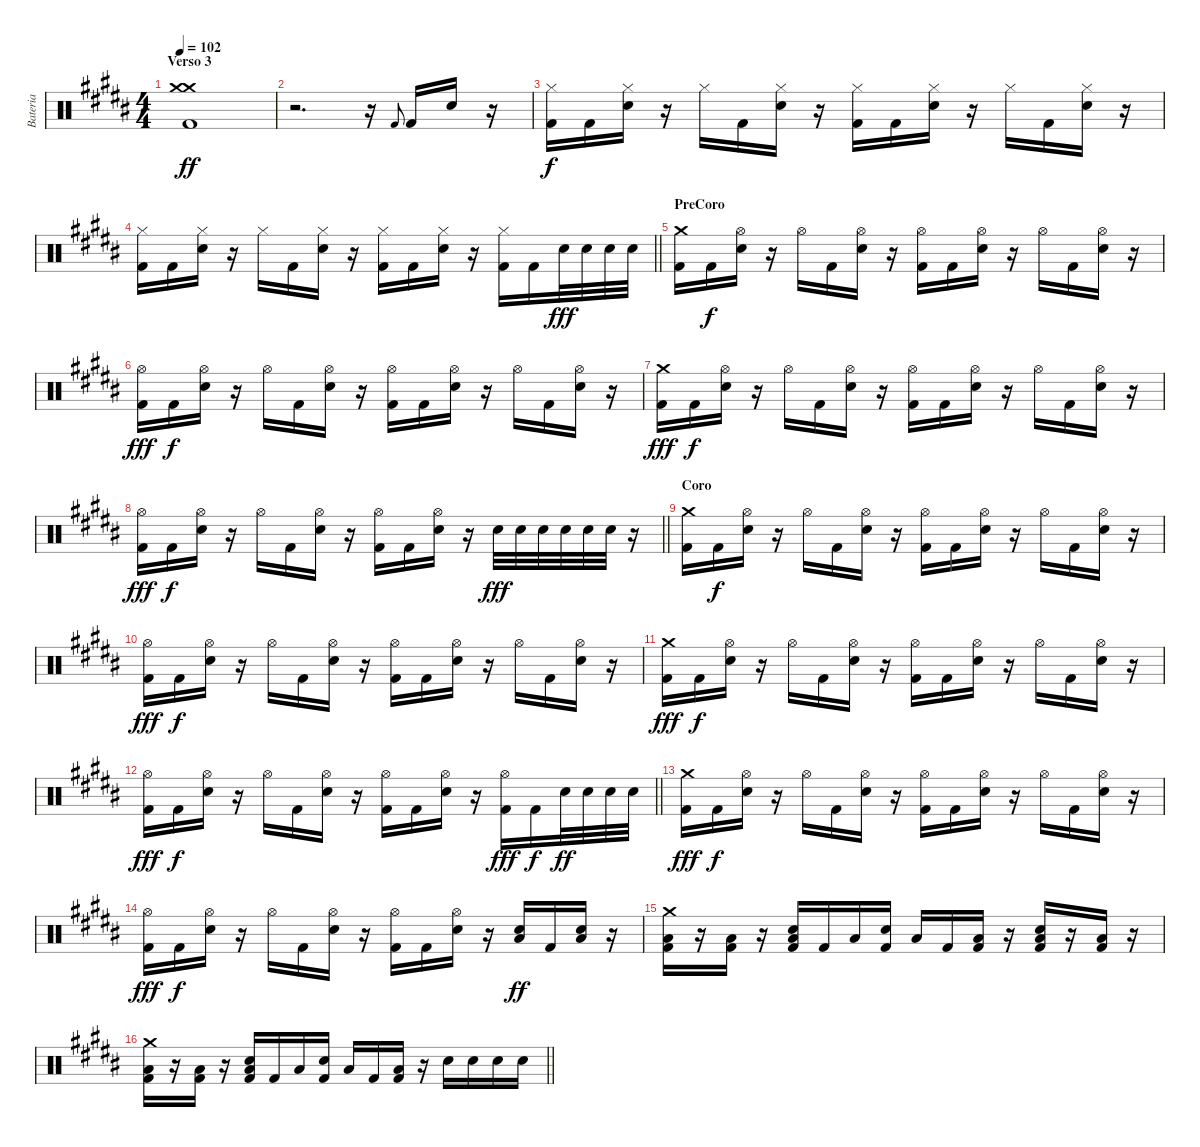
\track ("Bateria" "Bateria") {instrument percussion}
\staff {score}
\articulation defaults
\ts (4 4)
\section ("" "Verso 3")
\tempo 102
\clef neutral
\ks b
("Crash medium (hit)" "Crash medium (hit)" "Kick (hit) 2").1{dy ff} |
r.2{d} r.16 "Kick (hit) 2".8{gr onbeat} "Kick (hit) 2".16 "Electric Snare (hit)".16 r.16 |
("Hi-Hat (closed)" "Kick (hit) 2").16{dy f} "Kick (hit) 2".16 ("Hi-Hat (closed)" "Electric Snare (hit)").16 r.16 "Hi-Hat (closed)".16 "Kick (hit) 2".16 ("Hi-Hat (closed)" "Electric Snare (hit)").16 r.16 ("Hi-Hat (closed)" "Kick (hit) 2").16 "Kick (hit) 2".16 ("Hi-Hat (closed)" "Electric Snare (hit)").16 r.16 "Hi-Hat (closed)".16 "Kick (hit) 2".16 ("Hi-Hat (closed)" "Electric Snare (hit)").16 r.16 |
\barLineRight lightlight
("Hi-Hat (closed)" "Kick (hit) 2").16 "Kick (hit) 2".16 ("Hi-Hat (closed)" "Electric Snare (hit)").16 r.16 "Hi-Hat (closed)".16 "Kick (hit) 2".16 ("Hi-Hat (closed)" "Electric Snare (hit)").16 r.16 ("Hi-Hat (closed)" "Kick (hit) 2").16 "Kick (hit) 2".16 ("Hi-Hat (closed)" "Electric Snare (hit)").16 r.16 ("Hi-Hat (closed)" "Kick (hit) 2").16 "Kick (hit) 2".16 "Electric Snare (hit)".32{dy fff} "Electric Snare (hit)".32 "Electric Snare (hit)".32 "Electric Snare (hit)".32 |
\section ("" "PreCoro")
("Crash medium (hit)" "Kick (hit) 2").16 "Kick (hit) 2".16{dy f} ("Hi-Hat (open)" "Electric Snare (hit)").16 r.16 "Hi-Hat (open)".16 "Kick (hit) 2".16 ("Hi-Hat (open)" "Electric Snare (hit)").16 r.16 ("Hi-Hat (open)" "Kick (hit) 2").16 "Kick (hit) 2".16 ("Hi-Hat (open)" "Electric Snare (hit)").16 r.16 "Hi-Hat (open)".16 "Kick (hit) 2".16 ("Hi-Hat (open)" "Electric Snare (hit)").16 r.16 |
("Hi-Hat (open)" "Kick (hit) 2").16{dy fff} "Kick (hit) 2".16{dy f} ("Hi-Hat (open)" "Electric Snare (hit)").16 r.16 "Hi-Hat (open)".16 "Kick (hit) 2".16 ("Hi-Hat (open)" "Electric Snare (hit)").16 r.16 ("Hi-Hat (open)" "Kick (hit) 2").16 "Kick (hit) 2".16 ("Hi-Hat (open)" "Electric Snare (hit)").16 r.16 "Hi-Hat (open)".16 "Kick (hit) 2".16 ("Hi-Hat (open)" "Electric Snare (hit)").16 r.16 |
("Crash medium (hit)" "Kick (hit) 2").16{dy fff} "Kick (hit) 2".16{dy f} ("Hi-Hat (open)" "Electric Snare (hit)").16 r.16 "Hi-Hat (open)".16 "Kick (hit) 2".16 ("Hi-Hat (open)" "Electric Snare (hit)").16 r.16 ("Hi-Hat (open)" "Kick (hit) 2").16 "Kick (hit) 2".16 ("Hi-Hat (open)" "Electric Snare (hit)").16 r.16 "Hi-Hat (open)".16 "Kick (hit) 2".16 ("Hi-Hat (open)" "Electric Snare (hit)").16 r.16 |
\barLineRight lightlight
("Hi-Hat (open)" "Kick (hit) 2").16{dy fff} "Kick (hit) 2".16{dy f} ("Hi-Hat (open)" "Electric Snare (hit)").16 r.16 "Hi-Hat (open)".16 "Kick (hit) 2".16 ("Hi-Hat (open)" "Electric Snare (hit)").16 r.16 ("Hi-Hat (open)" "Kick (hit) 2").16 "Kick (hit) 2".16 ("Hi-Hat (open)" "Electric Snare (hit)").16 r.16 "Electric Snare (hit)".32{dy fff} "Electric Snare (hit)".32 "Electric Snare (hit)".32 "Electric Snare (hit)".32 "Electric Snare (hit)".32 "Electric Snare (hit)".32 r.16 |
\section ("" "Coro")
("Crash medium (hit)" "Kick (hit) 2").16 "Kick (hit) 2".16{dy f} ("Hi-Hat (open)" "Electric Snare (hit)").16 r.16 "Hi-Hat (open)".16 "Kick (hit) 2".16 ("Hi-Hat (open)" "Electric Snare (hit)").16 r.16 ("Hi-Hat (open)" "Kick (hit) 2").16 "Kick (hit) 2".16 ("Hi-Hat (open)" "Electric Snare (hit)").16 r.16 "Hi-Hat (open)".16 "Kick (hit) 2".16 ("Hi-Hat (open)" "Electric Snare (hit)").16 r.16 |
("Hi-Hat (open)" "Kick (hit) 2").16{dy fff} "Kick (hit) 2".16{dy f} ("Hi-Hat (open)" "Snare (hit) 2").16 r.16 "Hi-Hat (open)".16 "Kick (hit) 2".16 ("Hi-Hat (open)" "Snare (hit) 2").16 r.16 ("Hi-Hat (open)" "Kick (hit) 2").16 "Kick (hit) 2".16 ("Hi-Hat (open)" "Snare (hit) 2").16 r.16 "Hi-Hat (open)".16 "Kick (hit) 2".16 ("Hi-Hat (open)" "Snare (hit) 2").16 r.16 |
("Crash medium (hit)" "Kick (hit) 2").16{dy fff} "Kick (hit) 2".16{dy f} ("Hi-Hat (open)" "Snare (hit) 2").16 r.16 "Hi-Hat (open)".16 "Kick (hit) 2".16 ("Hi-Hat (open)" "Snare (hit) 2").16 r.16 ("Hi-Hat (open)" "Kick (hit) 2").16 "Kick (hit) 2".16 ("Hi-Hat (open)" "Snare (hit) 2").16 r.16 "Hi-Hat (open)".16 "Kick (hit) 2".16 ("Hi-Hat (open)" "Snare (hit) 2").16 r.16 |
\barLineRight lightlight
("Hi-Hat (open)" "Kick (hit) 2").16{dy fff} "Kick (hit) 2".16{dy f} ("Hi-Hat (open)" "Snare (hit) 2").16 r.16 "Hi-Hat (open)".16 "Kick (hit) 2".16 ("Hi-Hat (open)" "Snare (hit) 2").16 r.16 ("Hi-Hat (open)" "Kick (hit) 2").16 "Kick (hit) 2".16 ("Hi-Hat (open)" "Snare (hit) 2").16 r.16 ("Hi-Hat (open)" "Kick (hit) 2").16{dy fff} "Kick (hit) 2".16{dy f} "Snare (hit) 2".32{dy ff} "Snare (hit) 2".32 "Snare (hit) 2".32 "Snare (hit) 2".32 |
("Crash medium (hit)" "Kick (hit) 2").16{dy fff} "Kick (hit) 2".16{dy f} ("Hi-Hat (open)" "Snare (hit) 2").16 r.16 "Hi-Hat (open)".16 "Kick (hit) 2".16 ("Hi-Hat (open)" "Snare (hit) 2").16 r.16 ("Hi-Hat (open)" "Kick (hit) 2").16 "Kick (hit) 2".16 ("Hi-Hat (open)" "Snare (hit) 2").16 r.16 "Hi-Hat (open)".16 "Kick (hit) 2".16 ("Hi-Hat (open)" "Snare (hit) 2").16 r.16 |
("Hi-Hat (open)" "Kick (hit) 2").16{dy fff} "Kick (hit) 2".16{dy f} ("Hi-Hat (open)" "Snare (hit) 2").16 r.16 "Hi-Hat (open)".16 "Kick (hit) 2".16 ("Hi-Hat (open)" "Snare (hit) 2").16 r.16 ("Hi-Hat (open)" "Kick (hit) 2").16 "Kick (hit) 2".16 ("Hi-Hat (open)" "Snare (hit) 2").16 r.16 ("Low Floor Tom (hit)" "Snare (hit) 2").16{dy ff} "Kick (hit) 2".16 ("Low Floor Tom (hit)" "Snare (hit) 2").16 r.16 |
("Crash medium (hit)" "Low Floor Tom (hit)" "Kick (hit) 2").16 r.16 ("Low Floor Tom (hit)" "Kick (hit) 2").16 r.16 ("Snare (hit) 2" "Low Floor Tom (hit)" "Kick (hit) 2").16 "Kick (hit) 2".16 "Low Floor Tom (hit)".16 ("Snare (hit) 2" "Kick (hit) 2").16 "Low Floor Tom (hit)".16 "Kick (hit) 2".16 ("Low Floor Tom (hit)" "Kick (hit) 2").16 r.16 ("Snare (hit) 2" "Low Floor Tom (hit)" "Kick (hit) 2").16 r.16 ("Low Floor Tom (hit)" "Kick (hit) 2").16 r.16 |
\barLineRight lightlight
("Crash medium (hit)" "Low Floor Tom (hit)" "Kick (hit) 2").16 r.16 ("Low Floor Tom (hit)" "Kick (hit) 2").16 r.16 ("Snare (hit) 2" "Low Floor Tom (hit)" "Kick (hit) 2").16 "Kick (hit) 2".16 "Low Floor Tom (hit)".16 ("Snare (hit) 2" "Kick (hit) 2").16 "Low Floor Tom (hit)".16 "Kick (hit) 2".16 ("Low Floor Tom (hit)" "Kick (hit) 2").16 r.16 "Snare (hit) 2".16 "Snare (hit) 2".16 "Snare (hit) 2".16 "Snare (hit) 2".16
